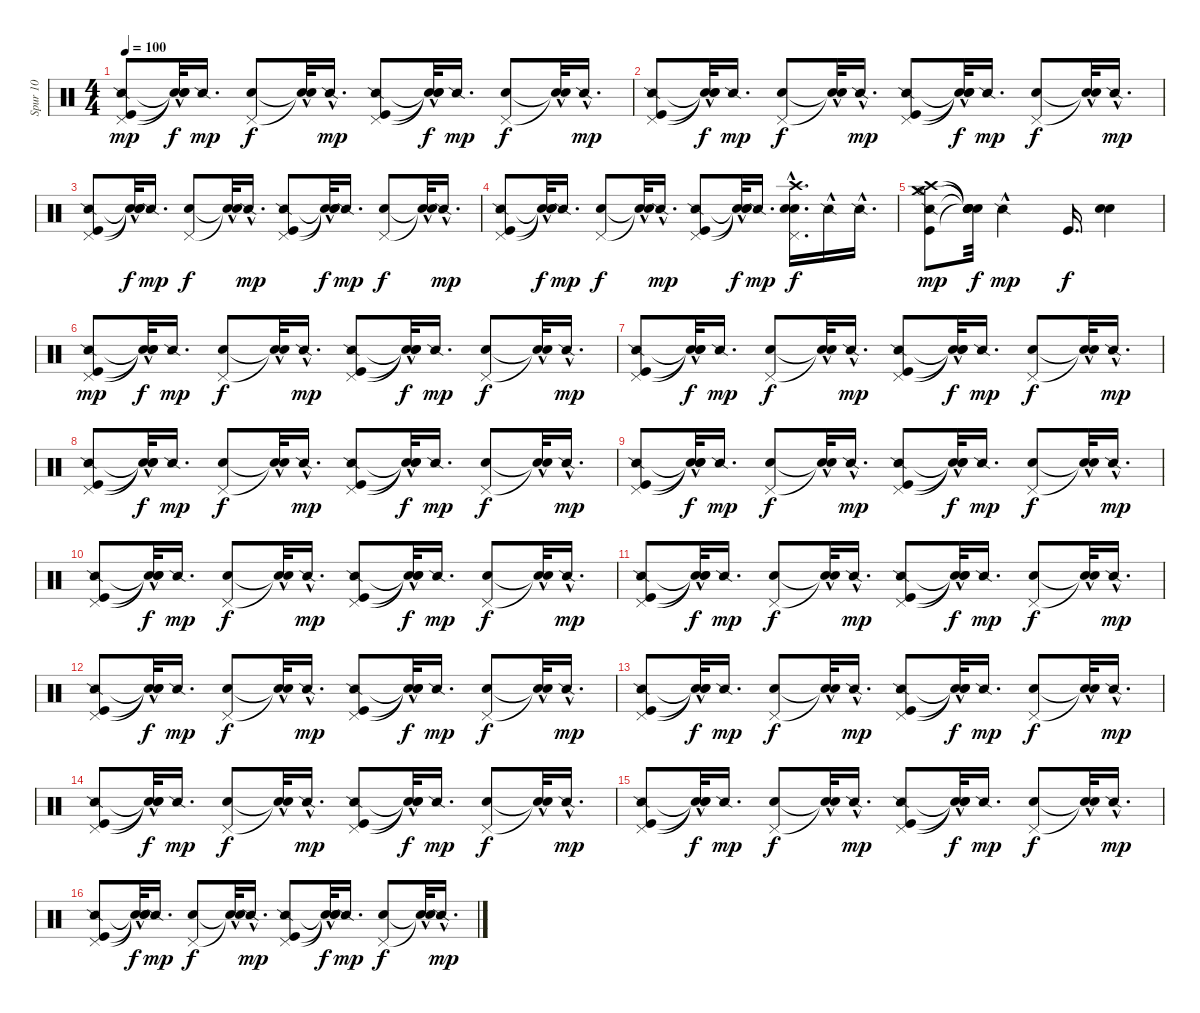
\track ("Spur 10" "Spur 10") {instrument percussion}
\staff {score}
\articulation defaults
\ts (4 4)
\tempo 100
\clef neutral
\ks c
("Snare (side stick) 2" "Kick (hit)" "Pedal Hi-Hat (hit)").8{dy mp} ("Snare (hit)"{t} "Snare (hit)"{hac t} "Snare (hit)"{t}).32{dy f} "Snare (side stick) 2".16{d dy mp} ("Electric Snare (hit)" "Pedal Hi-Hat (hit)").8{dy f} ("Snare (hit)"{hac t} "Snare (hit)"{t}).32 "Snare (side stick) 2"{hac}.16{d dy mp} ("Snare (side stick) 2" "Kick (hit)" "Pedal Hi-Hat (hit)").8 ("Snare (hit)"{t} "Snare (hit)"{hac t} "Snare (hit)"{t}).32{dy f} "Snare (side stick) 2".16{d dy mp} ("Electric Snare (hit)" "Pedal Hi-Hat (hit)").8{dy f} ("Snare (hit)"{hac t} "Snare (hit)"{t}).32 "Snare (side stick) 2"{hac}.16{d dy mp} |
("Snare (side stick) 2" "Kick (hit)" "Pedal Hi-Hat (hit)").8 ("Snare (hit)"{t} "Snare (hit)"{hac t} "Snare (hit)"{t}).32{dy f} "Snare (side stick) 2".16{d dy mp} ("Electric Snare (hit)" "Pedal Hi-Hat (hit)").8{dy f} ("Snare (hit)"{hac t} "Snare (hit)"{t}).32 "Snare (side stick) 2"{hac}.16{d dy mp} ("Snare (side stick) 2" "Kick (hit)" "Pedal Hi-Hat (hit)").8 ("Snare (hit)"{t} "Snare (hit)"{hac t} "Snare (hit)"{t}).32{dy f} "Snare (side stick) 2".16{d dy mp} ("Electric Snare (hit)" "Pedal Hi-Hat (hit)").8{dy f} ("Snare (hit)"{hac t} "Snare (hit)"{t}).32 "Snare (side stick) 2"{hac}.16{d dy mp} |
("Snare (side stick) 2" "Kick (hit)" "Pedal Hi-Hat (hit)").8 ("Snare (hit)"{t} "Snare (hit)"{hac t} "Snare (hit)"{t}).32{dy f} "Snare (side stick) 2".16{d dy mp} ("Electric Snare (hit)" "Pedal Hi-Hat (hit)").8{dy f} ("Snare (hit)"{hac t} "Snare (hit)"{t}).32 "Snare (side stick) 2"{hac}.16{d dy mp} ("Snare (side stick) 2" "Kick (hit)" "Pedal Hi-Hat (hit)").8 ("Snare (hit)"{t} "Snare (hit)"{hac t} "Snare (hit)"{t}).32{dy f} "Snare (side stick) 2".16{d dy mp} ("Electric Snare (hit)" "Pedal Hi-Hat (hit)").8{dy f} ("Snare (hit)"{hac t} "Snare (hit)"{t}).32 "Snare (side stick) 2"{hac}.16{d dy mp} |
("Snare (side stick) 2" "Kick (hit)" "Pedal Hi-Hat (hit)").8 ("Snare (hit)"{t} "Snare (hit)"{hac t} "Snare (hit)"{t}).32{dy f} "Snare (side stick) 2".16{d dy mp} ("Electric Snare (hit)" "Pedal Hi-Hat (hit)").8{dy f} ("Snare (hit)"{hac t} "Snare (hit)"{t}).32 "Snare (side stick) 2"{hac}.16{d dy mp} ("Snare (side stick) 2" "Kick (hit)" "Pedal Hi-Hat (hit)").8 ("Snare (hit)"{t} "Snare (hit)"{hac t} "Snare (hit)"{t}).32{dy f} "Snare (side stick) 2".16{d dy mp} ("Metronome (bell)"{hac} "Electric Snare (hit)" "Pedal Hi-Hat (hit)" "Crash high (hit)").16{d dy f} "Snare (side stick) 2"{hac}.16 "Snare (side stick) 2"{hac}.16{d} |
("Crash medium (hit)" "Snare (side stick) 2" "Kick (hit)" "Hi-Hat (open)" "Crash high (hit)").8{dy mp} ("Snare (hit)"{t} "Snare (hit)"{t} "Snare (hit)"{t} "Snare (hit)"{t} "Snare (hit)"{t}).32{dy f} "Snare (side stick) 2"{hac}.2{dy mp} "Kick (hit)".16{d dy f} ("Electric Snare (hit)" "Metronome (bell)").4 |
("Snare (side stick) 2" "Kick (hit)" "Pedal Hi-Hat (hit)").8{dy mp} ("Snare (hit)"{t} "Snare (hit)"{hac t} "Snare (hit)"{t}).32{dy f} "Snare (side stick) 2".16{d dy mp} ("Electric Snare (hit)" "Pedal Hi-Hat (hit)").8{dy f} ("Snare (hit)"{hac t} "Snare (hit)"{t}).32 "Snare (side stick) 2"{hac}.16{d dy mp} ("Snare (side stick) 2" "Kick (hit)" "Pedal Hi-Hat (hit)").8 ("Snare (hit)"{t} "Snare (hit)"{hac t} "Snare (hit)"{t}).32{dy f} "Snare (side stick) 2".16{d dy mp} ("Electric Snare (hit)" "Pedal Hi-Hat (hit)").8{dy f} ("Snare (hit)"{hac t} "Snare (hit)"{t}).32 "Snare (side stick) 2"{hac}.16{d dy mp} |
("Snare (side stick) 2" "Kick (hit)" "Pedal Hi-Hat (hit)").8 ("Snare (hit)"{t} "Snare (hit)"{hac t} "Snare (hit)"{t}).32{dy f} "Snare (side stick) 2".16{d dy mp} ("Electric Snare (hit)" "Pedal Hi-Hat (hit)").8{dy f} ("Snare (hit)"{hac t} "Snare (hit)"{t}).32 "Snare (side stick) 2"{hac}.16{d dy mp} ("Snare (side stick) 2" "Kick (hit)" "Pedal Hi-Hat (hit)").8 ("Snare (hit)"{t} "Snare (hit)"{hac t} "Snare (hit)"{t}).32{dy f} "Snare (side stick) 2".16{d dy mp} ("Electric Snare (hit)" "Pedal Hi-Hat (hit)").8{dy f} ("Snare (hit)"{hac t} "Snare (hit)"{t}).32 "Snare (side stick) 2"{hac}.16{d dy mp} |
("Snare (side stick) 2" "Kick (hit)" "Pedal Hi-Hat (hit)").8 ("Snare (hit)"{t} "Snare (hit)"{hac t} "Snare (hit)"{t}).32{dy f} "Snare (side stick) 2".16{d dy mp} ("Electric Snare (hit)" "Pedal Hi-Hat (hit)").8{dy f} ("Snare (hit)"{hac t} "Snare (hit)"{t}).32 "Snare (side stick) 2"{hac}.16{d dy mp} ("Snare (side stick) 2" "Kick (hit)" "Pedal Hi-Hat (hit)").8 ("Snare (hit)"{t} "Snare (hit)"{hac t} "Snare (hit)"{t}).32{dy f} "Snare (side stick) 2".16{d dy mp} ("Electric Snare (hit)" "Pedal Hi-Hat (hit)").8{dy f} ("Snare (hit)"{hac t} "Snare (hit)"{t}).32 "Snare (side stick) 2"{hac}.16{d dy mp} |
("Snare (side stick) 2" "Kick (hit)" "Pedal Hi-Hat (hit)").8 ("Snare (hit)"{t} "Snare (hit)"{hac t} "Snare (hit)"{t}).32{dy f} "Snare (side stick) 2".16{d dy mp} ("Electric Snare (hit)" "Pedal Hi-Hat (hit)").8{dy f} ("Snare (hit)"{hac t} "Snare (hit)"{t}).32 "Snare (side stick) 2"{hac}.16{d dy mp} ("Snare (side stick) 2" "Kick (hit)" "Pedal Hi-Hat (hit)").8 ("Snare (hit)"{t} "Snare (hit)"{hac t} "Snare (hit)"{t}).32{dy f} "Snare (side stick) 2".16{d dy mp} ("Electric Snare (hit)" "Pedal Hi-Hat (hit)").8{dy f} ("Snare (hit)"{hac t} "Snare (hit)"{t}).32 "Snare (side stick) 2"{hac}.16{d dy mp} |
("Snare (side stick) 2" "Kick (hit)" "Pedal Hi-Hat (hit)").8 ("Snare (hit)"{t} "Snare (hit)"{hac t} "Snare (hit)"{t}).32{dy f} "Snare (side stick) 2".16{d dy mp} ("Electric Snare (hit)" "Pedal Hi-Hat (hit)").8{dy f} ("Snare (hit)"{hac t} "Snare (hit)"{t}).32 "Snare (side stick) 2"{hac}.16{d dy mp} ("Snare (side stick) 2" "Kick (hit)" "Pedal Hi-Hat (hit)").8 ("Snare (hit)"{t} "Snare (hit)"{hac t} "Snare (hit)"{t}).32{dy f} "Snare (side stick) 2".16{d dy mp} ("Electric Snare (hit)" "Pedal Hi-Hat (hit)").8{dy f} ("Snare (hit)"{hac t} "Snare (hit)"{t}).32 "Snare (side stick) 2"{hac}.16{d dy mp} |
("Snare (side stick) 2" "Kick (hit)" "Pedal Hi-Hat (hit)").8 ("Snare (hit)"{t} "Snare (hit)"{hac t} "Snare (hit)"{t}).32{dy f} "Snare (side stick) 2".16{d dy mp} ("Electric Snare (hit)" "Pedal Hi-Hat (hit)").8{dy f} ("Snare (hit)"{hac t} "Snare (hit)"{t}).32 "Snare (side stick) 2"{hac}.16{d dy mp} ("Snare (side stick) 2" "Kick (hit)" "Pedal Hi-Hat (hit)").8 ("Snare (hit)"{t} "Snare (hit)"{hac t} "Snare (hit)"{t}).32{dy f} "Snare (side stick) 2".16{d dy mp} ("Electric Snare (hit)" "Pedal Hi-Hat (hit)").8{dy f} ("Snare (hit)"{hac t} "Snare (hit)"{t}).32 "Snare (side stick) 2"{hac}.16{d dy mp} |
("Snare (side stick) 2" "Kick (hit)" "Pedal Hi-Hat (hit)").8 ("Snare (hit)"{t} "Snare (hit)"{hac t} "Snare (hit)"{t}).32{dy f} "Snare (side stick) 2".16{d dy mp} ("Electric Snare (hit)" "Pedal Hi-Hat (hit)").8{dy f} ("Snare (hit)"{hac t} "Snare (hit)"{t}).32 "Snare (side stick) 2"{hac}.16{d dy mp} ("Snare (side stick) 2" "Kick (hit)" "Pedal Hi-Hat (hit)").8 ("Snare (hit)"{t} "Snare (hit)"{hac t} "Snare (hit)"{t}).32{dy f} "Snare (side stick) 2".16{d dy mp} ("Electric Snare (hit)" "Pedal Hi-Hat (hit)").8{dy f} ("Snare (hit)"{hac t} "Snare (hit)"{t}).32 "Snare (side stick) 2"{hac}.16{d dy mp} |
("Snare (side stick) 2" "Kick (hit)" "Pedal Hi-Hat (hit)").8 ("Snare (hit)"{t} "Snare (hit)"{hac t} "Snare (hit)"{t}).32{dy f} "Snare (side stick) 2".16{d dy mp} ("Electric Snare (hit)" "Pedal Hi-Hat (hit)").8{dy f} ("Snare (hit)"{hac t} "Snare (hit)"{t}).32 "Snare (side stick) 2"{hac}.16{d dy mp} ("Snare (side stick) 2" "Kick (hit)" "Pedal Hi-Hat (hit)").8 ("Snare (hit)"{t} "Snare (hit)"{hac t} "Snare (hit)"{t}).32{dy f} "Snare (side stick) 2".16{d dy mp} ("Electric Snare (hit)" "Pedal Hi-Hat (hit)").8{dy f} ("Snare (hit)"{hac t} "Snare (hit)"{t}).32 "Snare (side stick) 2"{hac}.16{d dy mp} |
("Snare (side stick) 2" "Kick (hit)" "Pedal Hi-Hat (hit)").8{volume 11} ("Snare (hit)"{t} "Snare (hit)"{hac t} "Snare (hit)"{t}).32{dy f} "Snare (side stick) 2".16{d dy mp} ("Electric Snare (hit)" "Pedal Hi-Hat (hit)").8{dy f} ("Snare (hit)"{hac t} "Snare (hit)"{t}).32 "Snare (side stick) 2"{hac}.16{d dy mp} ("Snare (side stick) 2" "Kick (hit)" "Pedal Hi-Hat (hit)").8{volume 10} ("Snare (hit)"{t} "Snare (hit)"{hac t} "Snare (hit)"{t}).32{dy f} "Snare (side stick) 2".16{d dy mp} ("Electric Snare (hit)" "Pedal Hi-Hat (hit)").8{dy f} ("Snare (hit)"{hac t} "Snare (hit)"{t}).32 "Snare (side stick) 2"{hac}.16{d dy mp} |
("Snare (side stick) 2" "Kick (hit)" "Pedal Hi-Hat (hit)").8{volume 10} ("Snare (hit)"{t} "Snare (hit)"{hac t} "Snare (hit)"{t}).32{dy f} "Snare (side stick) 2".16{d dy mp} ("Electric Snare (hit)" "Pedal Hi-Hat (hit)").8{dy f} ("Snare (hit)"{hac t} "Snare (hit)"{t}).32 "Snare (side stick) 2"{hac}.16{d dy mp} ("Snare (side stick) 2" "Kick (hit)" "Pedal Hi-Hat (hit)").8{volume 10} ("Snare (hit)"{t} "Snare (hit)"{hac t} "Snare (hit)"{t}).32{dy f} "Snare (side stick) 2".16{d dy mp} ("Electric Snare (hit)" "Pedal Hi-Hat (hit)").8{dy f} ("Snare (hit)"{hac t} "Snare (hit)"{t}).32 "Snare (side stick) 2"{hac}.16{d dy mp} |
("Snare (side stick) 2" "Kick (hit)" "Pedal Hi-Hat (hit)").8{volume 9} ("Snare (hit)"{t} "Snare (hit)"{hac t} "Snare (hit)"{t}).32{dy f} "Snare (side stick) 2".16{d dy mp} ("Electric Snare (hit)" "Pedal Hi-Hat (hit)").8{dy f} ("Snare (hit)"{hac t} "Snare (hit)"{t}).32 "Snare (side stick) 2"{hac}.16{d dy mp} ("Snare (side stick) 2" "Kick (hit)" "Pedal Hi-Hat (hit)").8{volume 9} ("Snare (hit)"{t} "Snare (hit)"{hac t} "Snare (hit)"{t}).32{dy f} "Snare (side stick) 2".16{d dy mp} ("Electric Snare (hit)" "Pedal Hi-Hat (hit)").8{dy f} ("Snare (hit)"{hac t} "Snare (hit)"{t}).32 "Snare (side stick) 2"{hac}.16{d dy mp}
